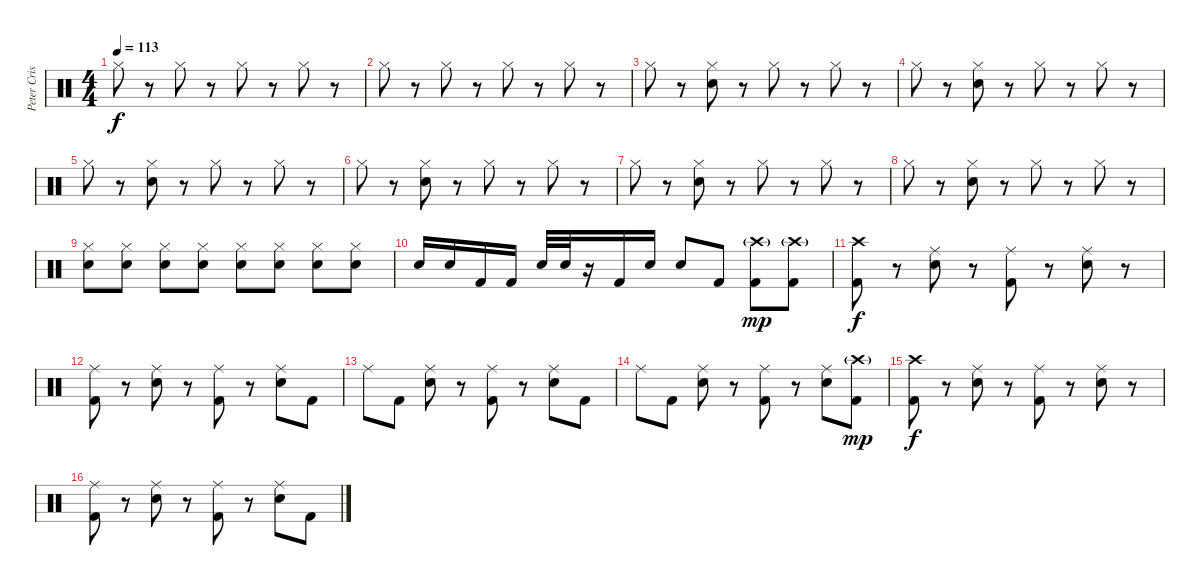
\track ("Peter Criss" "Peter Cris") {instrument percussion}
\staff {score}
\articulation defaults
\ts (4 4)
\tempo 113
\clef neutral
\ks c "Hi-Hat (closed)".8{dy f}
r.8 "Hi-Hat (closed)".8 r.8 "Hi-Hat (closed)".8 r.8 "Hi-Hat (closed)".8 r.8 |
"Hi-Hat (closed)".8 r.8 "Hi-Hat (closed)".8 r.8 "Hi-Hat (closed)".8 r.8 "Hi-Hat (closed)".8 r.8 |
"Hi-Hat (closed)".8 r.8 ("Hi-Hat (closed)" "Electric Snare (hit)").8 r.8 "Hi-Hat (closed)".8 r.8 "Hi-Hat (closed)".8 r.8 |
"Hi-Hat (closed)".8 r.8 ("Hi-Hat (closed)" "Electric Snare (hit)").8 r.8 "Hi-Hat (closed)".8 r.8 "Hi-Hat (closed)".8 r.8 |
"Hi-Hat (closed)".8 r.8 ("Hi-Hat (closed)" "Electric Snare (hit)").8 r.8 "Hi-Hat (closed)".8 r.8 "Hi-Hat (closed)".8 r.8 |
"Hi-Hat (closed)".8 r.8 ("Hi-Hat (closed)" "Electric Snare (hit)").8 r.8 "Hi-Hat (closed)".8 r.8 "Hi-Hat (closed)".8 r.8 |
"Hi-Hat (closed)".8 r.8 ("Hi-Hat (closed)" "Electric Snare (hit)").8 r.8 "Hi-Hat (closed)".8 r.8 "Hi-Hat (closed)".8 r.8 |
"Hi-Hat (closed)".8 r.8 ("Hi-Hat (closed)" "Electric Snare (hit)").8 r.8 "Hi-Hat (closed)".8 r.8 "Hi-Hat (closed)".8 r.8{volume 0} |
("Hi-Hat (closed)" "Electric Snare (hit)").8{volume 16} ("Hi-Hat (closed)" "Electric Snare (hit)").8 ("Hi-Hat (closed)" "Electric Snare (hit)").8 ("Hi-Hat (closed)" "Electric Snare (hit)").8 ("Hi-Hat (closed)" "Electric Snare (hit)").8 ("Hi-Hat (closed)" "Electric Snare (hit)").8 ("Hi-Hat (closed)" "Electric Snare (hit)").8 ("Hi-Hat (closed)" "Electric Snare (hit)").8 |
"Electric Snare (hit)".16 "Electric Snare (hit)".16 "Kick (hit) 2".16 "Kick (hit) 2".16 "Electric Snare (hit)".32 "Electric Snare (hit)".32 r.16 "Kick (hit) 2".16 "Electric Snare (hit)".16 "Electric Snare (hit)".8 "Kick (hit) 2".8 ("Crash high (hit)"{g} "Kick (hit) 2").8{dy mp} ("Crash high (hit)"{g} "Kick (hit) 2").8 |
("Crash high (hit)" "Kick (hit) 2").8{dy f} r.8 ("Ride (middle)" "Electric Snare (hit)").8 r.8 ("Ride (middle)" "Kick (hit) 2").8 r.8 ("Ride (middle)" "Electric Snare (hit)").8 r.8 |
("Ride (middle)" "Kick (hit) 2").8 r.8 ("Ride (middle)" "Electric Snare (hit)").8 r.8 ("Ride (middle)" "Kick (hit) 2").8 r.8 ("Ride (middle)" "Electric Snare (hit)").8 "Kick (hit) 2".8 |
"Ride (middle)".8 "Kick (hit) 2".8 ("Ride (middle)" "Electric Snare (hit)").8 r.8 ("Ride (middle)" "Kick (hit) 2").8 r.8 ("Ride (middle)" "Electric Snare (hit)").8 "Kick (hit) 2".8 |
"Ride (middle)".8 "Kick (hit) 2".8 ("Ride (middle)" "Electric Snare (hit)").8 r.8 ("Ride (middle)" "Kick (hit) 2").8 r.8 ("Ride (middle)" "Electric Snare (hit)").8 ("Crash high (hit)"{g} "Kick (hit) 2").8{dy mp} |
("Crash high (hit)" "Kick (hit) 2").8{dy f} r.8 ("Ride (middle)" "Electric Snare (hit)").8 r.8 ("Ride (middle)" "Kick (hit) 2").8 r.8 ("Ride (middle)" "Electric Snare (hit)").8 r.8 |
("Ride (middle)" "Kick (hit) 2").8 r.8 ("Ride (middle)" "Electric Snare (hit)").8 r.8 ("Ride (middle)" "Kick (hit) 2").8 r.8 ("Ride (middle)" "Electric Snare (hit)").8 "Kick (hit) 2".8
